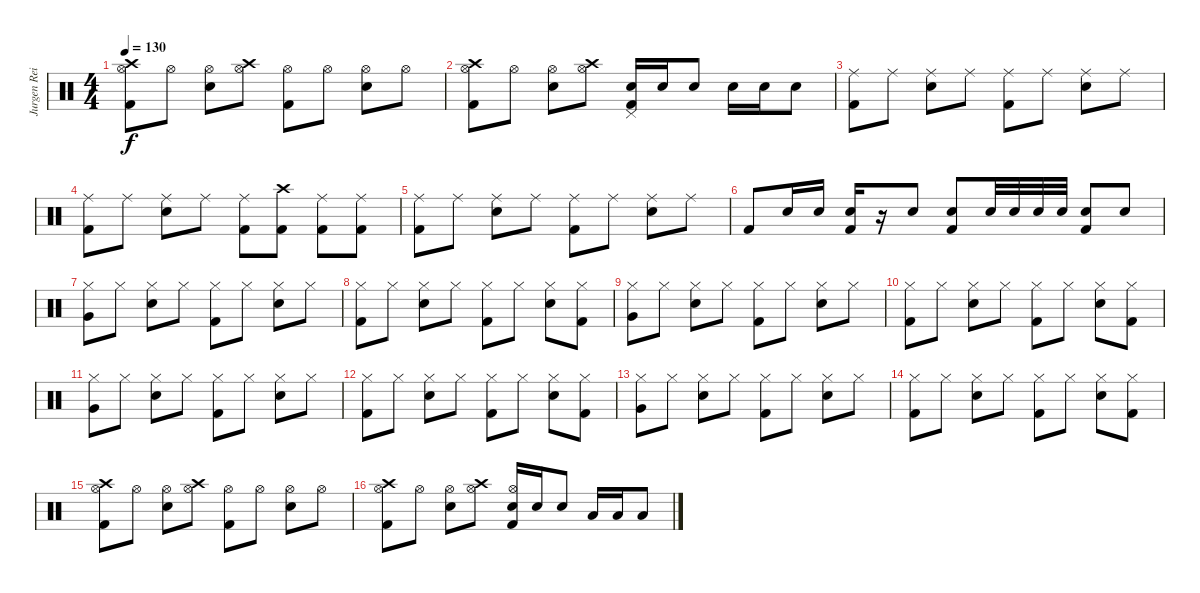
\track ("Jurgen Reil" "Jurgen Rei") {instrument percussion}
\staff {score}
\articulation defaults
\ts (4 4)
\tempo 130
\clef neutral
\ks c
("Kick (hit) 2" "Crash high (hit)" "Hi-Hat (open)").8{dy f} "Hi-Hat (open)".8 ("Snare (hit) 2" "Hi-Hat (open)").8 ("Crash high (hit)" "Hi-Hat (open)").8 ("Kick (hit) 2" "Hi-Hat (open)").8 "Hi-Hat (open)".8 ("Snare (hit) 2" "Hi-Hat (open)").8 "Hi-Hat (open)".8 |
("Kick (hit) 2" "Crash high (hit)" "Hi-Hat (open)").8 "Hi-Hat (open)".8 ("Snare (hit) 2" "Hi-Hat (open)").8 ("Crash high (hit)" "Hi-Hat (open)").8 ("Kick (hit) 2" "Snare (hit) 2" "Pedal Hi-Hat (hit)").16 "Snare (hit) 2".16 "Snare (hit) 2".8 "Snare (hit) 2".16 "Snare (hit) 2".16 "Snare (hit) 2".8 |
("Kick (hit) 2" "Ride (middle)").8 "Ride (middle)".8 ("Snare (hit) 2" "Ride (middle)").8 "Ride (middle)".8 ("Kick (hit) 2" "Ride (middle)").8 "Ride (middle)".8 ("Snare (hit) 2" "Ride (middle)").8 "Ride (middle)".8 |
("Kick (hit) 2" "Ride (middle)").8 "Ride (middle)".8 ("Snare (hit) 2" "Ride (middle)").8 "Ride (middle)".8 ("Kick (hit) 2" "Ride (middle)").8 ("Kick (hit) 2" "Crash high (hit)").8 ("Kick (hit) 2" "Ride (middle)").8 ("Kick (hit) 2" "Ride (middle)").8 |
("Kick (hit) 2" "Ride (middle)").8 "Ride (middle)".8 ("Snare (hit) 2" "Ride (middle)").8 "Ride (middle)".8 ("Kick (hit) 2" "Ride (middle)").8 "Ride (middle)".8 ("Snare (hit) 2" "Ride (middle)").8 "Ride (middle)".8 |
"Kick (hit) 2".8 "Snare (hit) 2".16 "Snare (hit) 2".16 ("Snare (hit) 2" "Kick (hit) 2").16 r.16 "Snare (hit) 2".8 ("Snare (hit) 2" "Kick (hit) 2").8 "Snare (hit) 2".32 "Snare (hit) 2".32 "Snare (hit) 2".32 "Snare (hit) 2".32 ("Snare (hit) 2" "Kick (hit) 2").8 "Snare (hit) 2".8 |
("Very Low Tom (hit)" "Hi-Hat (closed)").8 "Hi-Hat (closed)".8 ("Snare (hit) 2" "Hi-Hat (closed)").8 "Hi-Hat (closed)".8 ("Kick (hit) 2" "Hi-Hat (closed)").8 "Hi-Hat (closed)".8 ("Snare (hit) 2" "Hi-Hat (closed)").8 "Hi-Hat (closed)".8 |
("Kick (hit) 2" "Hi-Hat (closed)").8 "Hi-Hat (closed)".8 ("Snare (hit) 2" "Hi-Hat (closed)").8 "Hi-Hat (closed)".8 ("Kick (hit) 2" "Hi-Hat (closed)").8 "Hi-Hat (closed)".8 ("Snare (hit) 2" "Hi-Hat (closed)").8 ("Kick (hit) 2" "Hi-Hat (closed)").8 |
("Very Low Tom (hit)" "Hi-Hat (closed)").8 "Hi-Hat (closed)".8 ("Snare (hit) 2" "Hi-Hat (closed)").8 "Hi-Hat (closed)".8 ("Kick (hit) 2" "Hi-Hat (closed)").8 "Hi-Hat (closed)".8 ("Snare (hit) 2" "Hi-Hat (closed)").8 "Hi-Hat (closed)".8 |
("Kick (hit) 2" "Hi-Hat (closed)").8 "Hi-Hat (closed)".8 ("Snare (hit) 2" "Hi-Hat (closed)").8 "Hi-Hat (closed)".8 ("Kick (hit) 2" "Hi-Hat (closed)").8 "Hi-Hat (closed)".8 ("Snare (hit) 2" "Hi-Hat (closed)").8 ("Kick (hit) 2" "Hi-Hat (closed)").8 |
("Very Low Tom (hit)" "Hi-Hat (closed)").8 "Hi-Hat (closed)".8 ("Snare (hit) 2" "Hi-Hat (closed)").8 "Hi-Hat (closed)".8 ("Kick (hit) 2" "Hi-Hat (closed)").8 "Hi-Hat (closed)".8 ("Snare (hit) 2" "Hi-Hat (closed)").8 "Hi-Hat (closed)".8 |
("Kick (hit) 2" "Hi-Hat (closed)").8 "Hi-Hat (closed)".8 ("Snare (hit) 2" "Hi-Hat (closed)").8 "Hi-Hat (closed)".8 ("Kick (hit) 2" "Hi-Hat (closed)").8 "Hi-Hat (closed)".8 ("Snare (hit) 2" "Hi-Hat (closed)").8 ("Kick (hit) 2" "Hi-Hat (closed)").8 |
("Very Low Tom (hit)" "Hi-Hat (closed)").8 "Hi-Hat (closed)".8 ("Snare (hit) 2" "Hi-Hat (closed)").8 "Hi-Hat (closed)".8 ("Kick (hit) 2" "Hi-Hat (closed)").8 "Hi-Hat (closed)".8 ("Snare (hit) 2" "Hi-Hat (closed)").8 "Hi-Hat (closed)".8 |
("Kick (hit) 2" "Hi-Hat (closed)").8 "Hi-Hat (closed)".8 ("Snare (hit) 2" "Hi-Hat (closed)").8 "Hi-Hat (closed)".8 ("Kick (hit) 2" "Hi-Hat (closed)").8 "Hi-Hat (closed)".8 ("Snare (hit) 2" "Hi-Hat (closed)").8 ("Kick (hit) 2" "Hi-Hat (closed)").8 |
("Kick (hit) 2" "Crash high (hit)" "Hi-Hat (open)").8 "Hi-Hat (open)".8 ("Snare (hit) 2" "Hi-Hat (open)").8 ("Crash high (hit)" "Hi-Hat (open)").8 ("Kick (hit) 2" "Hi-Hat (open)").8 "Hi-Hat (open)".8 ("Snare (hit) 2" "Hi-Hat (open)").8 "Hi-Hat (open)".8 |
("Kick (hit) 2" "Crash high (hit)" "Hi-Hat (open)").8 "Hi-Hat (open)".8 ("Snare (hit) 2" "Hi-Hat (open)").8 ("Crash high (hit)" "Hi-Hat (open)").8 ("Kick (hit) 2" "Snare (hit) 2" "Hi-Hat (open)").16 "Snare (hit) 2".16 "Snare (hit) 2".8 "Low Tom (hit)".16 "Low Tom (hit)".16 "Low Tom (hit)".8
